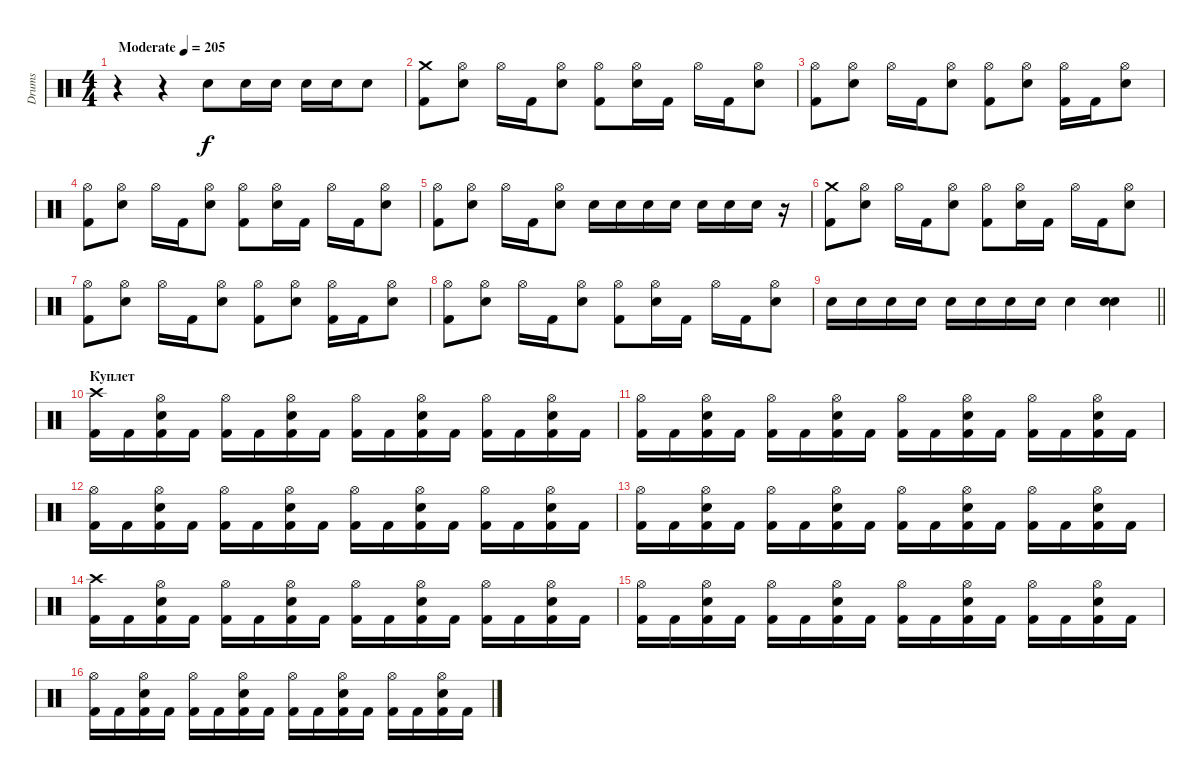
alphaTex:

\track ("Drums" "Drums") {instrument percussion}
\staff {score}
\articulation defaults
\ts (4 4)
\tempo (205 "Moderate")
\clef neutral
\ks c
r.4{dy f} r.4 "Electric Snare (hit)".8 "Electric Snare (hit)".16 "Electric Snare (hit)".16 "Electric Snare (hit)".16 "Electric Snare (hit)".16 "Electric Snare (hit)".8 |
("Kick (hit) 2" "Crash medium (hit)").8 ("Electric Snare (hit)" "Hi-Hat (open)").8 "Hi-Hat (open)".16 "Kick (hit) 2".16 ("Electric Snare (hit)" "Hi-Hat (open)").8 ("Kick (hit) 2" "Hi-Hat (open)").8 ("Electric Snare (hit)" "Hi-Hat (open)").16 "Kick (hit) 2".16 "Hi-Hat (open)".16 "Kick (hit) 2".16 ("Electric Snare (hit)" "Hi-Hat (open)").8 |
("Kick (hit) 2" "Hi-Hat (open)").8 ("Electric Snare (hit)" "Hi-Hat (open)").8 "Hi-Hat (open)".16 "Kick (hit) 2".16 ("Electric Snare (hit)" "Hi-Hat (open)").8 ("Kick (hit) 2" "Hi-Hat (open)").8 ("Electric Snare (hit)" "Hi-Hat (open)").8 ("Kick (hit) 2" "Hi-Hat (open)").16 "Kick (hit) 2".16 ("Electric Snare (hit)" "Hi-Hat (open)").8 |
("Kick (hit) 2" "Hi-Hat (open)").8 ("Electric Snare (hit)" "Hi-Hat (open)").8 "Hi-Hat (open)".16 "Kick (hit) 2".16 ("Electric Snare (hit)" "Hi-Hat (open)").8 ("Kick (hit) 2" "Hi-Hat (open)").8 ("Electric Snare (hit)" "Hi-Hat (open)").16 "Kick (hit) 2".16 "Hi-Hat (open)".16 "Kick (hit) 2".16 ("Electric Snare (hit)" "Hi-Hat (open)").8 |
("Kick (hit) 2" "Hi-Hat (open)").8 ("Electric Snare (hit)" "Hi-Hat (open)").8 "Hi-Hat (open)".16 "Kick (hit) 2".16 ("Electric Snare (hit)" "Hi-Hat (open)").8 "Electric Snare (hit)".16 "Electric Snare (hit)".16 "Electric Snare (hit)".16 "Electric Snare (hit)".16 "Electric Snare (hit)".16 "Electric Snare (hit)".16 "Electric Snare (hit)".16 r.16 |
("Kick (hit) 2" "Crash medium (hit)").8 ("Electric Snare (hit)" "Hi-Hat (open)").8 "Hi-Hat (open)".16 "Kick (hit) 2".16 ("Electric Snare (hit)" "Hi-Hat (open)").8 ("Kick (hit) 2" "Hi-Hat (open)").8 ("Electric Snare (hit)" "Hi-Hat (open)").16 "Kick (hit) 2".16 "Hi-Hat (open)".16 "Kick (hit) 2".16 ("Electric Snare (hit)" "Hi-Hat (open)").8 |
("Kick (hit) 2" "Hi-Hat (open)").8 ("Electric Snare (hit)" "Hi-Hat (open)").8 "Hi-Hat (open)".16 "Kick (hit) 2".16 ("Electric Snare (hit)" "Hi-Hat (open)").8 ("Kick (hit) 2" "Hi-Hat (open)").8 ("Electric Snare (hit)" "Hi-Hat (open)").8 ("Kick (hit) 2" "Hi-Hat (open)").16 "Kick (hit) 2".16 ("Electric Snare (hit)" "Hi-Hat (open)").8 |
("Kick (hit) 2" "Hi-Hat (open)").8 ("Electric Snare (hit)" "Hi-Hat (open)").8 "Hi-Hat (open)".16 "Kick (hit) 2".16 ("Electric Snare (hit)" "Hi-Hat (open)").8 ("Kick (hit) 2" "Hi-Hat (open)").8 ("Electric Snare (hit)" "Hi-Hat (open)").16 "Kick (hit) 2".16 "Hi-Hat (open)".16 "Kick (hit) 2".16 ("Electric Snare (hit)" "Hi-Hat (open)").8 |
\barLineRight lightlight "Electric Snare (hit)".16 "Electric Snare (hit)".16 "Electric Snare (hit)".16 "Electric Snare (hit)".16 "Electric Snare (hit)".16 "Electric Snare (hit)".16 "Electric Snare (hit)".16 "Electric Snare (hit)".16 "Electric Snare (hit)".4
("Electric Snare (hit)" "Electric Snare (hit)").4 |
\section ("" "Куплет")
("Kick (hit) 2" "Crash high (hit)").16 "Kick (hit) 2".16 ("Kick (hit) 2" "Electric Snare (hit)" "Hi-Hat (open)").16 "Kick (hit) 2".16 ("Kick (hit) 2" "Hi-Hat (open)").16 "Kick (hit) 2".16 ("Kick (hit) 2" "Electric Snare (hit)" "Hi-Hat (open)").16 "Kick (hit) 2".16 ("Kick (hit) 2" "Hi-Hat (open)").16 "Kick (hit) 2".16 ("Kick (hit) 2" "Electric Snare (hit)" "Hi-Hat (open)").16 "Kick (hit) 2".16 ("Kick (hit) 2" "Hi-Hat (open)").16 "Kick (hit) 2".16 ("Kick (hit) 2" "Electric Snare (hit)" "Hi-Hat (open)").16 "Kick (hit) 2".16 |
("Kick (hit) 2" "Hi-Hat (open)").16 "Kick (hit) 2".16 ("Kick (hit) 2" "Electric Snare (hit)" "Hi-Hat (open)").16 "Kick (hit) 2".16 ("Kick (hit) 2" "Hi-Hat (open)").16 "Kick (hit) 2".16 ("Kick (hit) 2" "Electric Snare (hit)" "Hi-Hat (open)").16 "Kick (hit) 2".16 ("Kick (hit) 2" "Hi-Hat (open)").16 "Kick (hit) 2".16 ("Kick (hit) 2" "Electric Snare (hit)" "Hi-Hat (open)").16 "Kick (hit) 2".16 ("Kick (hit) 2" "Hi-Hat (open)").16 "Kick (hit) 2".16 ("Kick (hit) 2" "Electric Snare (hit)" "Hi-Hat (open)").16 "Kick (hit) 2".16 |
("Kick (hit) 2" "Hi-Hat (open)").16 "Kick (hit) 2".16 ("Kick (hit) 2" "Electric Snare (hit)" "Hi-Hat (open)").16 "Kick (hit) 2".16 ("Kick (hit) 2" "Hi-Hat (open)").16 "Kick (hit) 2".16 ("Kick (hit) 2" "Electric Snare (hit)" "Hi-Hat (open)").16 "Kick (hit) 2".16 ("Kick (hit) 2" "Hi-Hat (open)").16 "Kick (hit) 2".16 ("Kick (hit) 2" "Electric Snare (hit)" "Hi-Hat (open)").16 "Kick (hit) 2".16 ("Kick (hit) 2" "Hi-Hat (open)").16 "Kick (hit) 2".16 ("Kick (hit) 2" "Electric Snare (hit)" "Hi-Hat (open)").16 "Kick (hit) 2".16 |
("Kick (hit) 2" "Hi-Hat (open)").16 "Kick (hit) 2".16 ("Kick (hit) 2" "Electric Snare (hit)" "Hi-Hat (open)").16 "Kick (hit) 2".16 ("Kick (hit) 2" "Hi-Hat (open)").16 "Kick (hit) 2".16 ("Kick (hit) 2" "Electric Snare (hit)" "Hi-Hat (open)").16 "Kick (hit) 2".16 ("Kick (hit) 2" "Hi-Hat (open)").16 "Kick (hit) 2".16 ("Kick (hit) 2" "Electric Snare (hit)" "Hi-Hat (open)").16 "Kick (hit) 2".16 ("Kick (hit) 2" "Hi-Hat (open)").16 "Kick (hit) 2".16 ("Kick (hit) 2" "Electric Snare (hit)" "Hi-Hat (open)").16 "Kick (hit) 2".16 |
("Kick (hit) 2" "Crash high (hit)").16 "Kick (hit) 2".16 ("Kick (hit) 2" "Electric Snare (hit)" "Hi-Hat (open)").16 "Kick (hit) 2".16 ("Kick (hit) 2" "Hi-Hat (open)").16 "Kick (hit) 2".16 ("Kick (hit) 2" "Electric Snare (hit)" "Hi-Hat (open)").16 "Kick (hit) 2".16 ("Kick (hit) 2" "Hi-Hat (open)").16 "Kick (hit) 2".16 ("Kick (hit) 2" "Electric Snare (hit)" "Hi-Hat (open)").16 "Kick (hit) 2".16 ("Kick (hit) 2" "Hi-Hat (open)").16 "Kick (hit) 2".16 ("Kick (hit) 2" "Electric Snare (hit)" "Hi-Hat (open)").16 "Kick (hit) 2".16 |
("Kick (hit) 2" "Hi-Hat (open)").16 "Kick (hit) 2".16 ("Kick (hit) 2" "Electric Snare (hit)" "Hi-Hat (open)").16 "Kick (hit) 2".16 ("Kick (hit) 2" "Hi-Hat (open)").16 "Kick (hit) 2".16 ("Kick (hit) 2" "Electric Snare (hit)" "Hi-Hat (open)").16 "Kick (hit) 2".16 ("Kick (hit) 2" "Hi-Hat (open)").16 "Kick (hit) 2".16 ("Kick (hit) 2" "Electric Snare (hit)" "Hi-Hat (open)").16 "Kick (hit) 2".16 ("Kick (hit) 2" "Hi-Hat (open)").16 "Kick (hit) 2".16 ("Kick (hit) 2" "Electric Snare (hit)" "Hi-Hat (open)").16 "Kick (hit) 2".16 |
("Kick (hit) 2" "Hi-Hat (open)").16 "Kick (hit) 2".16 ("Kick (hit) 2" "Electric Snare (hit)" "Hi-Hat (open)").16 "Kick (hit) 2".16 ("Kick (hit) 2" "Hi-Hat (open)").16 "Kick (hit) 2".16 ("Kick (hit) 2" "Electric Snare (hit)" "Hi-Hat (open)").16 "Kick (hit) 2".16 ("Kick (hit) 2" "Hi-Hat (open)").16 "Kick (hit) 2".16 ("Kick (hit) 2" "Electric Snare (hit)" "Hi-Hat (open)").16 "Kick (hit) 2".16 ("Kick (hit) 2" "Hi-Hat (open)").16 "Kick (hit) 2".16 ("Kick (hit) 2" "Electric Snare (hit)" "Hi-Hat (open)").16 "Kick (hit) 2".16
